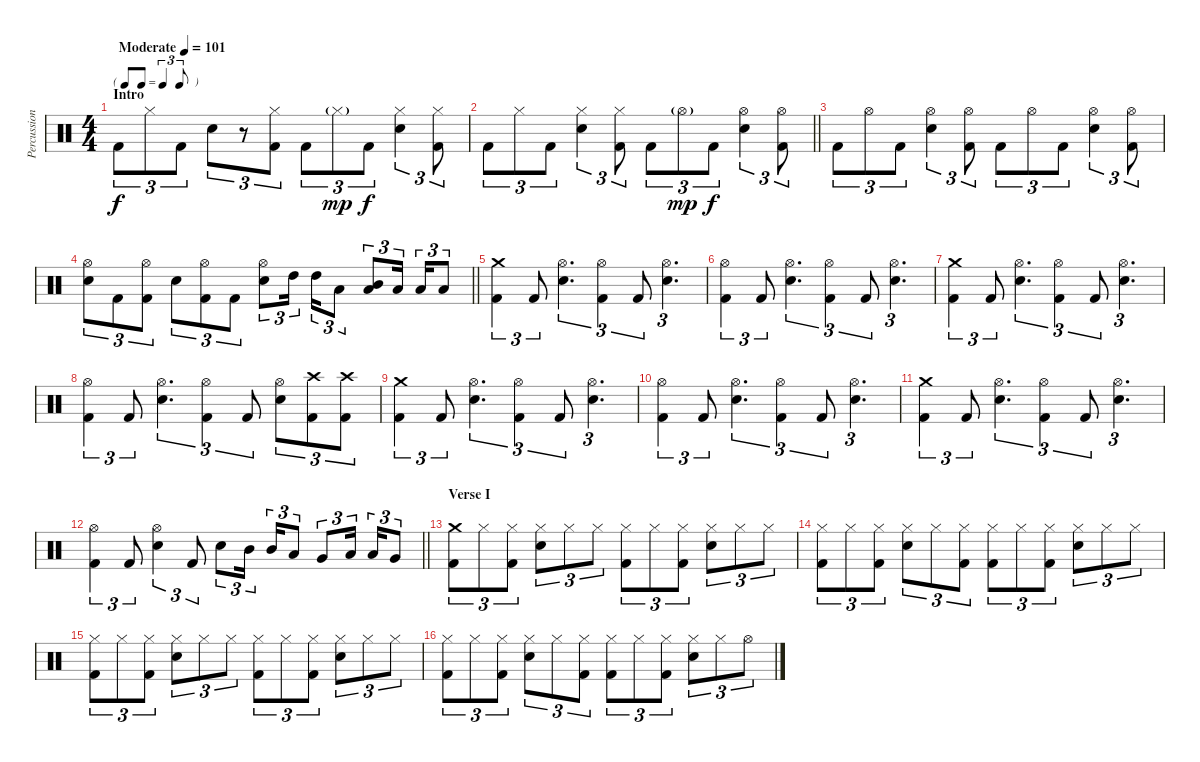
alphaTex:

\track ("Percussion" "Percussion") {instrument percussion}
\staff {score}
\articulation defaults
\ts (4 4)
\tf triplet8th
\section ("" "Intro")
\tempo (101 "Moderate")
\clef neutral
\ks c "Kick (hit) 2".8{tu (3 2) dy f volume 16} "Hi-Hat (closed)".8{tu (3 2)} "Kick (hit) 2".8{tu (3 2)} "Electric Snare (hit)".8{tu (3 2)}
r.8{tu (3 2)} ("Hi-Hat (closed)" "Kick (hit) 2").8{tu (3 2)} "Kick (hit) 2".8{tu (3 2)} "Hi-Hat (closed)"{g}.8{tu (3 2) dy mp} "Kick (hit) 2".8{tu (3 2) dy f} ("Hi-Hat (closed)" "Electric Snare (hit)").4{tu (3 2)} ("Hi-Hat (closed)" "Kick (hit) 2").8{tu (3 2)} |
\barLineRight lightlight "Kick (hit) 2".8{tu (3 2)} "Hi-Hat (closed)".8{tu (3 2)} "Kick (hit) 2".8{tu (3 2)}
("Hi-Hat (closed)" "Electric Snare (hit)").4{tu (3 2)} ("Hi-Hat (closed)" "Kick (hit) 2").8{tu (3 2)} "Kick (hit) 2".8{tu (3 2)} "Hi-Hat (open)"{g}.8{tu (3 2) dy mp} "Kick (hit) 2".8{tu (3 2) dy f} ("Hi-Hat (open)" "Electric Snare (hit)").4{tu (3 2)} ("Hi-Hat (open)" "Kick (hit) 2").8{tu (3 2)} |
"Kick (hit) 2".8{tu (3 2)} "Hi-Hat (open)".8{tu (3 2)} "Kick (hit) 2".8{tu (3 2)} ("Hi-Hat (open)" "Electric Snare (hit)").4{tu (3 2)} ("Hi-Hat (open)" "Kick (hit) 2").8{tu (3 2)} "Kick (hit) 2".8{tu (3 2)} "Hi-Hat (open)".8{tu (3 2)} "Kick (hit) 2".8{tu (3 2)} ("Hi-Hat (open)" "Electric Snare (hit)").4{tu (3 2)} ("Hi-Hat (open)" "Kick (hit) 2").8{tu (3 2)} |
\barLineRight lightlight
("Hi-Hat (open)" "Electric Snare (hit)").8{tu (3 2)} "Kick (hit) 2".8{tu (3 2)} ("Hi-Hat (open)" "Kick (hit) 2").8{tu (3 2)} "Electric Snare (hit)".8{tu (3 2)} ("Hi-Hat (open)" "Kick (hit) 2").8{tu (3 2)} "Kick (hit) 2".8{tu (3 2)} ("Hi-Hat (open)" "Electric Snare (hit)").8{tu (3 2)} "High Tom (hit)".16{tu (3 2) beam splitsecondary} "High Tom (hit)".16{tu (3 2)} "Low Tom (hit)".8{tu (3 2)} ("Mid Tom (hit)" "Low Tom (hit)").8{tu (3 2)} "Low Tom (hit)".16{tu (3 2) beam splitsecondary} "Low Tom (hit)".16{tu (3 2)} "Low Floor Tom (hit)".8{tu (3 2)} |
("Crash medium (hit)" "Kick (hit) 2").4{tu (3 2)} "Kick (hit) 2".8{tu (3 2)} ("Hi-Hat (open)" "Electric Snare (hit)").4{d tu (3 2)} ("Hi-Hat (open)" "Kick (hit) 2").4{tu (3 2)} "Kick (hit) 2".8{tu (3 2)} ("Hi-Hat (open)" "Electric Snare (hit)").4{d tu (3 2)} |
("Hi-Hat (open)" "Kick (hit) 2").4{tu (3 2)} "Kick (hit) 2".8{tu (3 2)} ("Hi-Hat (open)" "Electric Snare (hit)").4{d tu (3 2)} ("Hi-Hat (open)" "Kick (hit) 2").4{tu (3 2)} "Kick (hit) 2".8{tu (3 2)} ("Hi-Hat (open)" "Electric Snare (hit)").4{d tu (3 2)} |
("Crash medium (hit)" "Kick (hit) 2").4{tu (3 2)} "Kick (hit) 2".8{tu (3 2)} ("Hi-Hat (open)" "Electric Snare (hit)").4{d tu (3 2)} ("Hi-Hat (open)" "Kick (hit) 2").4{tu (3 2)} "Kick (hit) 2".8{tu (3 2)} ("Hi-Hat (open)" "Electric Snare (hit)").4{d tu (3 2)} |
("Hi-Hat (open)" "Kick (hit) 2").4{tu (3 2)} "Kick (hit) 2".8{tu (3 2)} ("Hi-Hat (open)" "Electric Snare (hit)").4{d tu (3 2)} ("Hi-Hat (open)" "Kick (hit) 2").4{tu (3 2)} "Kick (hit) 2".8{tu (3 2)} ("Hi-Hat (open)" "Electric Snare (hit)").8{tu (3 2)} ("Crash high (hit)" "Kick (hit) 2").8{tu (3 2)} ("Crash high (hit)" "Kick (hit) 2").8{tu (3 2)} |
("Crash medium (hit)" "Kick (hit) 2").4{tu (3 2)} "Kick (hit) 2".8{tu (3 2)} ("Hi-Hat (open)" "Electric Snare (hit)").4{d tu (3 2)} ("Hi-Hat (open)" "Kick (hit) 2").4{tu (3 2)} "Kick (hit) 2".8{tu (3 2)} ("Hi-Hat (open)" "Electric Snare (hit)").4{d tu (3 2)} |
("Hi-Hat (open)" "Kick (hit) 2").4{tu (3 2)} "Kick (hit) 2".8{tu (3 2)} ("Hi-Hat (open)" "Electric Snare (hit)").4{d tu (3 2)} ("Hi-Hat (open)" "Kick (hit) 2").4{tu (3 2)} "Kick (hit) 2".8{tu (3 2)} ("Hi-Hat (open)" "Electric Snare (hit)").4{d tu (3 2)} |
("Crash medium (hit)" "Kick (hit) 2").4{tu (3 2)} "Kick (hit) 2".8{tu (3 2)} ("Hi-Hat (open)" "Electric Snare (hit)").4{d tu (3 2)} ("Hi-Hat (open)" "Kick (hit) 2").4{tu (3 2)} "Kick (hit) 2".8{tu (3 2)} ("Hi-Hat (open)" "Electric Snare (hit)").4{d tu (3 2)} |
\barLineRight lightlight
("Hi-Hat (open)" "Kick (hit) 2").4{tu (3 2)} "Kick (hit) 2".8{tu (3 2)} ("Hi-Hat (open)" "Electric Snare (hit)").4{tu (3 2)} "Kick (hit) 2".8{tu (3 2)} "Electric Snare (hit)".8{tu (3 2)} "Mid Tom (hit)".16{tu (3 2) beam splitsecondary} "Mid Tom (hit)".16{tu (3 2)} "Low Tom (hit)".8{tu (3 2)} "Very Low Tom (hit)".8{tu (3 2)} "Low Tom (hit)".16{tu (3 2) beam splitsecondary} "Low Tom (hit)".16{tu (3 2)} "Very Low Tom (hit)".8{tu (3 2)} |
\section ("" "Verse I")
("Crash medium (hit)" "Kick (hit) 2").8{tu (3 2)} "Hi-Hat (closed)".8{tu (3 2)} ("Hi-Hat (closed)" "Kick (hit) 2").8{tu (3 2)} ("Hi-Hat (closed)" "Electric Snare (hit)").8{tu (3 2)} "Hi-Hat (closed)".8{tu (3 2)} "Hi-Hat (closed)".8{tu (3 2)} ("Hi-Hat (closed)" "Kick (hit) 2").8{tu (3 2)} "Hi-Hat (closed)".8{tu (3 2)} ("Hi-Hat (closed)" "Kick (hit) 2").8{tu (3 2)} ("Hi-Hat (closed)" "Electric Snare (hit)").8{tu (3 2)} "Hi-Hat (closed)".8{tu (3 2)} "Hi-Hat (closed)".8{tu (3 2)} |
("Hi-Hat (closed)" "Kick (hit) 2").8{tu (3 2)} "Hi-Hat (closed)".8{tu (3 2)} ("Hi-Hat (closed)" "Kick (hit) 2").8{tu (3 2)} ("Hi-Hat (closed)" "Electric Snare (hit)").8{tu (3 2)} "Hi-Hat (closed)".8{tu (3 2)} ("Hi-Hat (closed)" "Kick (hit) 2").8{tu (3 2)} ("Hi-Hat (closed)" "Kick (hit) 2").8{tu (3 2)} "Hi-Hat (closed)".8{tu (3 2)} ("Hi-Hat (closed)" "Kick (hit) 2").8{tu (3 2)} ("Hi-Hat (closed)" "Electric Snare (hit)").8{tu (3 2)} "Hi-Hat (closed)".8{tu (3 2)} "Hi-Hat (closed)".8{tu (3 2)} |
("Hi-Hat (closed)" "Kick (hit) 2").8{tu (3 2)} "Hi-Hat (closed)".8{tu (3 2)} ("Hi-Hat (closed)" "Kick (hit) 2").8{tu (3 2)} ("Hi-Hat (closed)" "Electric Snare (hit)").8{tu (3 2)} "Hi-Hat (closed)".8{tu (3 2)} "Hi-Hat (closed)".8{tu (3 2)} ("Hi-Hat (closed)" "Kick (hit) 2").8{tu (3 2)} "Hi-Hat (closed)".8{tu (3 2)} ("Hi-Hat (closed)" "Kick (hit) 2").8{tu (3 2)} ("Hi-Hat (closed)" "Electric Snare (hit)").8{tu (3 2)} "Hi-Hat (closed)".8{tu (3 2)} "Hi-Hat (closed)".8{tu (3 2)} |
("Hi-Hat (closed)" "Kick (hit) 2").8{tu (3 2)} "Hi-Hat (closed)".8{tu (3 2)} ("Hi-Hat (closed)" "Kick (hit) 2").8{tu (3 2)} ("Hi-Hat (closed)" "Electric Snare (hit)").8{tu (3 2)} "Hi-Hat (closed)".8{tu (3 2)} ("Hi-Hat (closed)" "Kick (hit) 2").8{tu (3 2)} ("Hi-Hat (closed)" "Kick (hit) 2").8{tu (3 2)} "Hi-Hat (closed)".8{tu (3 2)} ("Hi-Hat (closed)" "Kick (hit) 2").8{tu (3 2)} ("Hi-Hat (closed)" "Electric Snare (hit)").8{tu (3 2)} "Hi-Hat (closed)".8{tu (3 2)} "Hi-Hat (open)".8{tu (3 2)}
